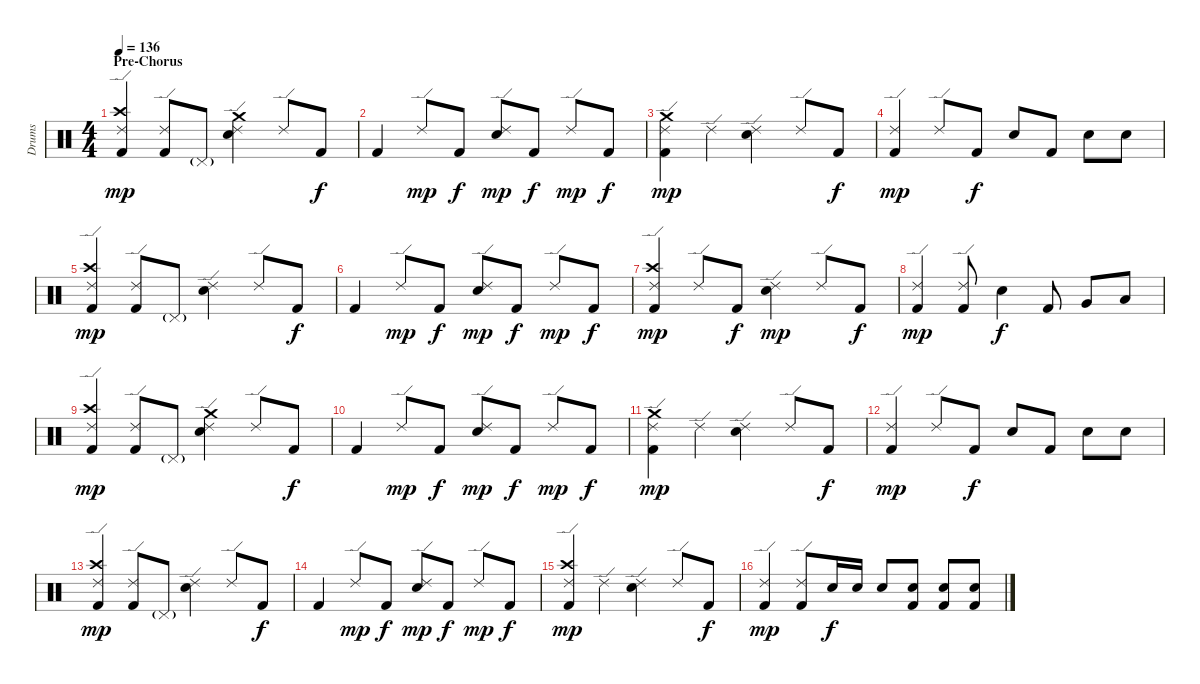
\track ("Drums" "Drums") {instrument percussion}
\staff {score}
\articulation defaults
\ts (4 4)
\section ("" "Pre-Chorus")
\tempo 136
\clef neutral
\ks c
("Ride (edge) 2" "Crash high (hit)" "Kick (hit) 2").4{dy mp} ("Ride (edge) 2" "Kick (hit) 2").8 "Pedal Hi-Hat (hit)"{g}.8 ("Ride (edge) 2" "Crash medium (hit)" "Snare (hit) 2").4 "Ride (edge) 2".8 "Kick (hit) 2".8{dy f} |
"Kick (hit) 2".4 "Ride (edge) 2".8{dy mp} "Kick (hit) 2".8{dy f} ("Ride (edge) 2" "Snare (hit) 2").8{dy mp} "Kick (hit) 2".8{dy f} "Ride (edge) 2".8{dy mp} "Kick (hit) 2".8{dy f} |
("Ride (edge) 2" "Crash medium (hit)" "Kick (hit) 2").4{dy mp} "Ride (edge) 2".4 ("Ride (edge) 2" "Snare (hit) 2").4 "Ride (edge) 2".8 "Kick (hit) 2".8{dy f} |
("Ride (edge) 2" "Kick (hit) 2").4{dy mp} "Ride (edge) 2".8 "Kick (hit) 2".8{dy f} "Snare (hit) 2".8 "Kick (hit) 2".8 "Snare (hit) 2".8 "Snare (hit) 2".8 |
("Ride (edge) 2" "Crash high (hit)" "Kick (hit) 2").4{dy mp} ("Ride (edge) 2" "Kick (hit) 2").8 "Pedal Hi-Hat (hit)"{g}.8 ("Ride (edge) 2" "Snare (hit) 2").4 "Ride (edge) 2".8 "Kick (hit) 2".8{dy f} |
"Kick (hit) 2".4 "Ride (edge) 2".8{dy mp} "Kick (hit) 2".8{dy f} ("Ride (edge) 2" "Snare (hit) 2").8{dy mp} "Kick (hit) 2".8{dy f} "Ride (edge) 2".8{dy mp} "Kick (hit) 2".8{dy f} |
("Ride (edge) 2" "Crash high (hit)" "Kick (hit) 2").4{dy mp} "Ride (edge) 2".8 "Kick (hit) 2".8{dy f} ("Ride (edge) 2" "Snare (hit) 2").4{dy mp} "Ride (edge) 2".8 "Kick (hit) 2".8{dy f} |
("Ride (edge) 2" "Kick (hit) 2").4{dy mp} ("Ride (edge) 2" "Kick (hit) 2").8 "Snare (hit) 2".4{dy f} "Kick (hit) 2".8 "Very Low Tom (hit)".8 "Low Tom (hit)".8 |
("Ride (edge) 2" "Crash high (hit)" "Kick (hit) 2").4{dy mp} ("Ride (edge) 2" "Kick (hit) 2").8 "Pedal Hi-Hat (hit)"{g}.8 ("Ride (edge) 2" "Crash medium (hit)" "Snare (hit) 2").4 "Ride (edge) 2".8 "Kick (hit) 2".8{dy f} |
"Kick (hit) 2".4 "Ride (edge) 2".8{dy mp} "Kick (hit) 2".8{dy f} ("Ride (edge) 2" "Snare (hit) 2").8{dy mp} "Kick (hit) 2".8{dy f} "Ride (edge) 2".8{dy mp} "Kick (hit) 2".8{dy f} |
("Ride (edge) 2" "Crash medium (hit)" "Kick (hit) 2").4{dy mp} "Ride (edge) 2".4 ("Ride (edge) 2" "Snare (hit) 2").4 "Ride (edge) 2".8 "Kick (hit) 2".8{dy f} |
("Ride (edge) 2" "Kick (hit) 2").4{dy mp} "Ride (edge) 2".8 "Kick (hit) 2".8{dy f} "Snare (hit) 2".8 "Kick (hit) 2".8 "Snare (hit) 2".8 "Snare (hit) 2".8 |
("Ride (edge) 2" "Crash high (hit)" "Kick (hit) 2").4{dy mp} ("Ride (edge) 2" "Kick (hit) 2").8 "Pedal Hi-Hat (hit)"{g}.8 ("Ride (edge) 2" "Snare (hit) 2").4 "Ride (edge) 2".8 "Kick (hit) 2".8{dy f} |
"Kick (hit) 2".4 "Ride (edge) 2".8{dy mp} "Kick (hit) 2".8{dy f} ("Ride (edge) 2" "Snare (hit) 2").8{dy mp} "Kick (hit) 2".8{dy f} "Ride (edge) 2".8{dy mp} "Kick (hit) 2".8{dy f} |
("Ride (edge) 2" "Crash high (hit)" "Kick (hit) 2").4{dy mp} "Ride (edge) 2".4 ("Ride (edge) 2" "Snare (hit) 2").4 "Ride (edge) 2".8 "Kick (hit) 2".8{dy f} |
("Ride (edge) 2" "Kick (hit) 2").4{dy mp} ("Ride (edge) 2" "Kick (hit) 2").8 "Snare (hit) 2".16{dy f} "Snare (hit) 2".16 "Snare (hit) 2".8 ("Snare (hit) 2" "Kick (hit) 2").8 ("Snare (hit) 2" "Kick (hit) 2").8 ("Snare (hit) 2" "Kick (hit) 2").8
